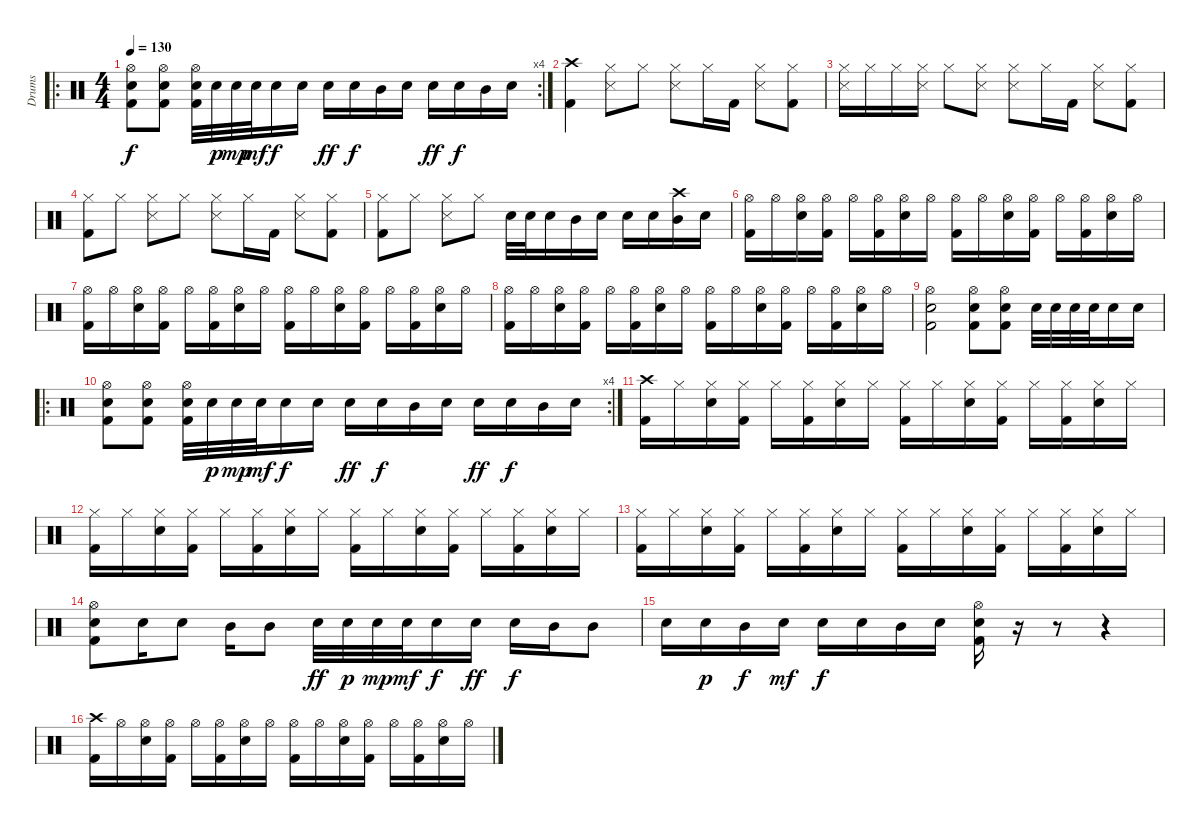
\track ("Drums" "Drums") {instrument percussion}
\staff {score}
\articulation defaults
\ro
\rc 4
\ts (4 4)
\tempo 130
\clef neutral
\ks c
("Hi-Hat (open)" "Electric Snare (hit)" "Kick (hit) 2").8{dy f} ("Hi-Hat (open)" "Electric Snare (hit)" "Kick (hit) 2").8 ("Hi-Hat (open)" "Electric Snare (hit)" "Kick (hit) 2").32 "Electric Snare (hit)".32{dy p} "Electric Snare (hit)".32{dy mp} "Electric Snare (hit)".32{dy mf} "Electric Snare (hit)".16{dy f} "Electric Snare (hit)".16 "Electric Snare (hit)".16{dy ff} "Electric Snare (hit)".16{dy f} "Mid Tom (hit)".16 "Electric Snare (hit)".16 "Electric Snare (hit)".16{dy ff} "Electric Snare (hit)".16{dy f} "Mid Tom (hit)".16 "Electric Snare (hit)".16 |
("Crash high (hit)" "Kick (hit) 2").4 ("Hi-Hat (closed)" "Snare (side stick) 3").8 "Hi-Hat (closed)".8 ("Hi-Hat (closed)" "Snare (side stick) 3").8 "Hi-Hat (closed)".16 "Kick (hit) 2".16 ("Hi-Hat (closed)" "Snare (side stick) 3").8 ("Hi-Hat (closed)" "Kick (hit) 2").8 |
("Hi-Hat (closed)" "Snare (side stick) 3").16 "Hi-Hat (closed)".16 "Hi-Hat (closed)".16 ("Hi-Hat (closed)" "Snare (side stick) 3").16 "Hi-Hat (closed)".8 ("Hi-Hat (closed)" "Snare (side stick) 3").8 ("Hi-Hat (closed)" "Snare (side stick) 3").8 "Hi-Hat (closed)".16 "Kick (hit) 2".16 ("Hi-Hat (closed)" "Snare (side stick) 3").8 ("Hi-Hat (closed)" "Kick (hit) 2").8 |
("Hi-Hat (closed)" "Kick (hit) 2").8 "Hi-Hat (closed)".8 ("Hi-Hat (closed)" "Snare (side stick) 3").8 "Hi-Hat (closed)".8 ("Hi-Hat (closed)" "Snare (side stick) 3").8 "Hi-Hat (closed)".16 "Kick (hit) 2".16 ("Hi-Hat (closed)" "Snare (side stick) 3").8 ("Hi-Hat (closed)" "Kick (hit) 2").8 |
("Hi-Hat (closed)" "Kick (hit) 2").8 "Hi-Hat (closed)".8 ("Hi-Hat (closed)" "Snare (side stick) 3").8 "Hi-Hat (closed)".8 "Electric Snare (hit)".32 "Electric Snare (hit)".32 "Electric Snare (hit)".16 "Mid Tom (hit)".16 "Electric Snare (hit)".16 "Electric Snare (hit)".16 "Electric Snare (hit)".16 ("Crash high (hit)" "Mid Tom (hit)").16 "Electric Snare (hit)".16 |
("Hi-Hat (open)" "Kick (hit) 2").16 "Hi-Hat (open)".16 ("Hi-Hat (open)" "Electric Snare (hit)").16 ("Hi-Hat (open)" "Kick (hit) 2").16 "Hi-Hat (open)".16 ("Hi-Hat (open)" "Kick (hit) 2").16 ("Hi-Hat (open)" "Electric Snare (hit)").16 "Hi-Hat (open)".16 ("Hi-Hat (open)" "Kick (hit) 2").16 "Hi-Hat (open)".16 ("Hi-Hat (open)" "Electric Snare (hit)").16 ("Hi-Hat (open)" "Kick (hit) 2").16 "Hi-Hat (open)".16 ("Hi-Hat (open)" "Kick (hit) 2").16 ("Hi-Hat (open)" "Electric Snare (hit)").16 "Hi-Hat (open)".16 |
("Hi-Hat (open)" "Kick (hit) 2").16 "Hi-Hat (open)".16 ("Hi-Hat (open)" "Electric Snare (hit)").16 ("Hi-Hat (open)" "Kick (hit) 2").16 "Hi-Hat (open)".16 ("Hi-Hat (open)" "Kick (hit) 2").16 ("Hi-Hat (open)" "Electric Snare (hit)").16 "Hi-Hat (open)".16 ("Hi-Hat (open)" "Kick (hit) 2").16 "Hi-Hat (open)".16 ("Hi-Hat (open)" "Electric Snare (hit)").16 ("Hi-Hat (open)" "Kick (hit) 2").16 "Hi-Hat (open)".16 ("Hi-Hat (open)" "Kick (hit) 2").16 ("Hi-Hat (open)" "Electric Snare (hit)").16 "Hi-Hat (open)".16 |
("Hi-Hat (open)" "Kick (hit) 2").16 "Hi-Hat (open)".16 ("Hi-Hat (open)" "Electric Snare (hit)").16 ("Hi-Hat (open)" "Kick (hit) 2").16 "Hi-Hat (open)".16 ("Hi-Hat (open)" "Kick (hit) 2").16 ("Hi-Hat (open)" "Electric Snare (hit)").16 "Hi-Hat (open)".16 ("Hi-Hat (open)" "Kick (hit) 2").16 "Hi-Hat (open)".16 ("Hi-Hat (open)" "Electric Snare (hit)").16 ("Hi-Hat (open)" "Kick (hit) 2").16 "Hi-Hat (open)".16 ("Hi-Hat (open)" "Kick (hit) 2").16 ("Hi-Hat (open)" "Electric Snare (hit)").16 "Hi-Hat (open)".16 |
("Hi-Hat (open)" "Electric Snare (hit)" "Kick (hit) 2").2 ("Hi-Hat (open)" "Electric Snare (hit)" "Kick (hit) 2").8 ("Hi-Hat (open)" "Electric Snare (hit)" "Kick (hit) 2").8 "Electric Snare (hit)".32 "Electric Snare (hit)".32 "Electric Snare (hit)".32 "Electric Snare (hit)".32 "Electric Snare (hit)".16 "Electric Snare (hit)".16 |
\ro
\rc 4
("Hi-Hat (open)" "Electric Snare (hit)" "Kick (hit) 2").8 ("Hi-Hat (open)" "Electric Snare (hit)" "Kick (hit) 2").8 ("Hi-Hat (open)" "Electric Snare (hit)" "Kick (hit) 2").32 "Electric Snare (hit)".32{dy p} "Electric Snare (hit)".32{dy mp} "Electric Snare (hit)".32{dy mf} "Electric Snare (hit)".16{dy f} "Electric Snare (hit)".16 "Electric Snare (hit)".16{dy ff} "Electric Snare (hit)".16{dy f} "Mid Tom (hit)".16 "Electric Snare (hit)".16 "Electric Snare (hit)".16{dy ff} "Electric Snare (hit)".16{dy f} "Mid Tom (hit)".16 "Electric Snare (hit)".16 |
("Crash high (hit)" "Kick (hit) 2").16 "Hi-Hat (closed)".16 ("Hi-Hat (closed)" "Electric Snare (hit)").16 ("Hi-Hat (closed)" "Kick (hit) 2").16 "Hi-Hat (closed)".16 ("Hi-Hat (closed)" "Kick (hit) 2").16 ("Hi-Hat (closed)" "Electric Snare (hit)").16 "Hi-Hat (closed)".16 ("Hi-Hat (closed)" "Kick (hit) 2").16 "Hi-Hat (closed)".16 ("Hi-Hat (closed)" "Electric Snare (hit)").16 ("Hi-Hat (closed)" "Kick (hit) 2").16 "Hi-Hat (closed)".16 ("Hi-Hat (closed)" "Kick (hit) 2").16 ("Hi-Hat (closed)" "Electric Snare (hit)").16 "Hi-Hat (closed)".16 |
("Hi-Hat (closed)" "Kick (hit) 2").16 "Hi-Hat (closed)".16 ("Hi-Hat (closed)" "Electric Snare (hit)").16 ("Hi-Hat (closed)" "Kick (hit) 2").16 "Hi-Hat (closed)".16 ("Hi-Hat (closed)" "Kick (hit) 2").16 ("Hi-Hat (closed)" "Electric Snare (hit)").16 "Hi-Hat (closed)".16 ("Hi-Hat (closed)" "Kick (hit) 2").16 "Hi-Hat (closed)".16 ("Hi-Hat (closed)" "Electric Snare (hit)").16 ("Hi-Hat (closed)" "Kick (hit) 2").16 "Hi-Hat (closed)".16 ("Hi-Hat (closed)" "Kick (hit) 2").16 ("Hi-Hat (closed)" "Electric Snare (hit)").16 "Hi-Hat (closed)".16 |
("Hi-Hat (closed)" "Kick (hit) 2").16 "Hi-Hat (closed)".16 ("Hi-Hat (closed)" "Electric Snare (hit)").16 ("Hi-Hat (closed)" "Kick (hit) 2").16 "Hi-Hat (closed)".16 ("Hi-Hat (closed)" "Kick (hit) 2").16 ("Hi-Hat (closed)" "Electric Snare (hit)").16 "Hi-Hat (closed)".16 ("Hi-Hat (closed)" "Kick (hit) 2").16 "Hi-Hat (closed)".16 ("Hi-Hat (closed)" "Electric Snare (hit)").16 ("Hi-Hat (closed)" "Kick (hit) 2").16 "Hi-Hat (closed)".16 ("Hi-Hat (closed)" "Kick (hit) 2").16 ("Hi-Hat (closed)" "Electric Snare (hit)").16 "Hi-Hat (closed)".16 |
("Hi-Hat (open)" "Electric Snare (hit)" "Kick (hit) 2").8 "Electric Snare (hit)".16 "Electric Snare (hit)".8 "Mid Tom (hit)".16 "Mid Tom (hit)".8 "Electric Snare (hit)".32{dy ff} "Electric Snare (hit)".32{dy p} "Electric Snare (hit)".32{dy mp} "Electric Snare (hit)".32{dy mf} "Electric Snare (hit)".16{dy f} "Electric Snare (hit)".16{dy ff} "Electric Snare (hit)".16{dy f} "Mid Tom (hit)".16 "Mid Tom (hit)".8 |
"Electric Snare (hit)".16 "Electric Snare (hit)".16{dy p} "Mid Tom (hit)".16{dy f} "Electric Snare (hit)".16{dy mf} "Electric Snare (hit)".16{dy f} "Electric Snare (hit)".16 "Mid Tom (hit)".16 "Electric Snare (hit)".16 ("Hi-Hat (open)" "Electric Snare (hit)" "Kick (hit) 2").16 r.16 r.8 r.4 |
("Crash high (hit)" "Kick (hit) 2").16 "Hi-Hat (open)".16 ("Hi-Hat (open)" "Electric Snare (hit)").16 ("Hi-Hat (open)" "Kick (hit) 2").16 "Hi-Hat (open)".16 ("Hi-Hat (open)" "Kick (hit) 2").16 ("Hi-Hat (open)" "Electric Snare (hit)").16 "Hi-Hat (open)".16 ("Hi-Hat (open)" "Kick (hit) 2").16 "Hi-Hat (open)".16 ("Hi-Hat (open)" "Electric Snare (hit)").16 ("Hi-Hat (open)" "Kick (hit) 2").16 "Hi-Hat (open)".16 ("Hi-Hat (open)" "Kick (hit) 2").16 ("Hi-Hat (open)" "Electric Snare (hit)").16 "Hi-Hat (open)".16
